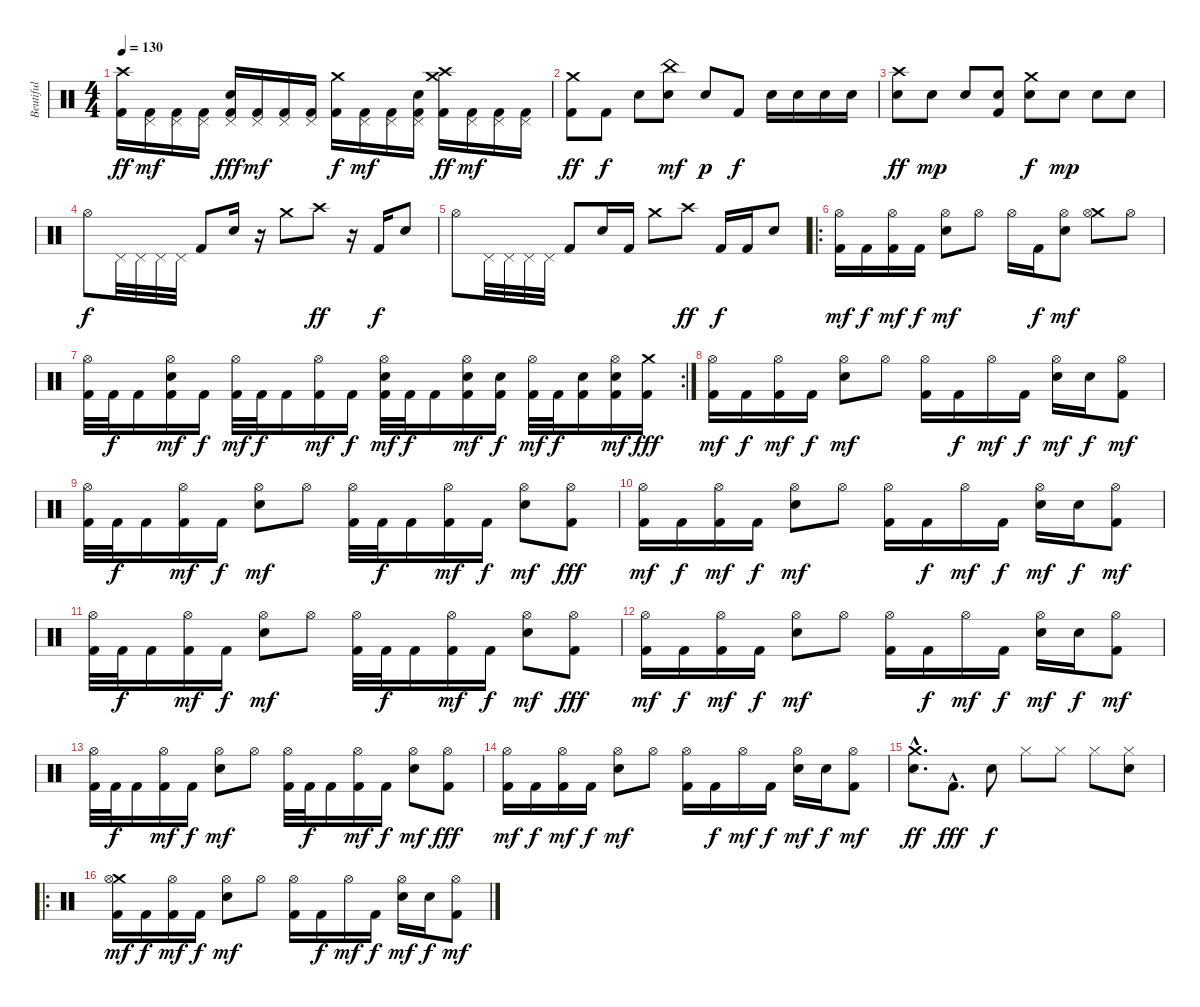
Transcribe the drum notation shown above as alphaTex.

\track ("Beutiful" "Beutiful") {instrument percussion}
\staff {score}
\articulation defaults
\ts (4 4)
\tempo 130
\clef neutral
\ks c
("Crash high (hit)" "Kick (hit) 2").16{dy ff} ("Pedal Hi-Hat (hit)" "Kick (hit) 2").16{dy mf} ("Pedal Hi-Hat (hit)" "Kick (hit) 2").16 ("Pedal Hi-Hat (hit)" "Kick (hit) 2").16 ("Pedal Hi-Hat (hit)" "Electric Snare (hit)" "Kick (hit) 2").16{dy fff} ("Pedal Hi-Hat (hit)" "Kick (hit) 2").16{dy mf} ("Pedal Hi-Hat (hit)" "Kick (hit) 2").16 ("Pedal Hi-Hat (hit)" "Kick (hit) 2").16 ("Crash medium (hit)" "Kick (hit) 2").16{dy f} ("Pedal Hi-Hat (hit)" "Kick (hit) 2").16{dy mf} ("Pedal Hi-Hat (hit)" "Kick (hit) 2").16 ("Pedal Hi-Hat (hit)" "Electric Snare (hit)" "Kick (hit) 2").16 ("Crash high (hit)" "Crash medium (hit)" "Kick (hit) 2").16{dy ff} ("Pedal Hi-Hat (hit)" "Kick (hit) 2").16{dy mf} ("Pedal Hi-Hat (hit)" "Kick (hit) 2").16 ("Pedal Hi-Hat (hit)" "Kick (hit) 2").16 |
("Crash medium (hit)" "Kick (hit) 2").8{dy ff} "Kick (hit) 2".8{dy f} "Electric Snare (hit)".8 ("China (hit)" "Electric Snare (hit)").8{dy mf} "Electric Snare (hit)".8{dy p} "Kick (hit) 2".8{dy f} "Electric Snare (hit)".16 "Electric Snare (hit)".16 "Electric Snare (hit)".16 "Electric Snare (hit)".16 |
("Crash high (hit)" "Electric Snare (hit)").8{dy ff} "Electric Snare (hit)".8{dy mp} "Electric Snare (hit)".8 ("Electric Snare (hit)" "Kick (hit) 2").8 ("Crash medium (hit)" "Electric Snare (hit)").8{dy f} "Electric Snare (hit)".8{dy mp} "Electric Snare (hit)".8 "Electric Snare (hit)".8 |
"Hi-Hat (open)".8{dy f} "Pedal Hi-Hat (hit)".32 "Pedal Hi-Hat (hit)".32 "Pedal Hi-Hat (hit)".32 "Pedal Hi-Hat (hit)".32 "Kick (hit) 2".8 "Electric Snare (hit)".16 r.16 "Crash medium (hit)".8 "Crash high (hit)".8{dy ff} r.16 "Kick (hit) 2".16{dy f} "Electric Snare (hit)".8 |
"Hi-Hat (open)".8 "Pedal Hi-Hat (hit)".32 "Pedal Hi-Hat (hit)".32 "Pedal Hi-Hat (hit)".32 "Pedal Hi-Hat (hit)".32 "Kick (hit) 2".8 "Electric Snare (hit)".16 "Kick (hit) 2".16 "Crash medium (hit)".8 "Crash high (hit)".8{dy ff} "Kick (hit) 2".16{dy f} "Kick (hit) 2".16 "Electric Snare (hit)".8 |
\ro
("Hi-Hat (open)" "Kick (hit) 2").16{dy mf} "Kick (hit) 2".16{dy f} ("Hi-Hat (open)" "Kick (hit) 2").16{dy mf} "Kick (hit) 2".16{dy f} ("Hi-Hat (open)" "Electric Snare (hit)").8{dy mf} "Hi-Hat (open)".8 "Hi-Hat (open)".16 "Kick (hit) 2".16{dy f} ("Hi-Hat (open)" "Electric Snare (hit)").8{dy mf} ("Crash medium (hit)" "Hi-Hat (open)").8 "Hi-Hat (open)".8 |
\rc 2
("Hi-Hat (open)" "Kick (hit) 2").32 "Kick (hit) 2".32{dy f} "Kick (hit) 2".16 ("Hi-Hat (open)" "Electric Snare (hit)" "Kick (hit) 2").16{dy mf} "Kick (hit) 2".16{dy f} ("Hi-Hat (open)" "Kick (hit) 2").32{dy mf} "Kick (hit) 2".32{dy f} "Kick (hit) 2".16 ("Hi-Hat (open)" "Kick (hit) 2").16{dy mf} "Kick (hit) 2".16{dy f} ("Hi-Hat (open)" "Electric Snare (hit)" "Kick (hit) 2").32{dy mf} "Kick (hit) 2".32{dy f} "Kick (hit) 2".16 ("Hi-Hat (open)" "Electric Snare (hit)" "Kick (hit) 2").16{dy mf} ("Electric Snare (hit)" "Kick (hit) 2").16{dy f} ("Hi-Hat (open)" "Kick (hit) 2").32{dy mf} "Kick (hit) 2".32{dy f} ("Electric Snare (hit)" "Kick (hit) 2").16 ("Hi-Hat (open)" "Electric Snare (hit)" "Kick (hit) 2").16{dy mf} ("Crash medium (hit)" "Kick (hit) 2").16{dy fff} |
("Hi-Hat (open)" "Kick (hit) 2").16{dy mf} "Kick (hit) 2".16{dy f} ("Hi-Hat (open)" "Kick (hit) 2").16{dy mf} "Kick (hit) 2".16{dy f} ("Hi-Hat (open)" "Electric Snare (hit)").8{dy mf} "Hi-Hat (open)".8 ("Hi-Hat (open)" "Kick (hit) 2").16 "Kick (hit) 2".16{dy f} "Hi-Hat (open)".16{dy mf} "Kick (hit) 2".16{dy f} ("Hi-Hat (open)" "Electric Snare (hit)").16{dy mf} "Electric Snare (hit)".16{dy f} ("Hi-Hat (open)" "Kick (hit) 2").8{dy mf} |
("Hi-Hat (open)" "Kick (hit) 2").32 "Kick (hit) 2".32{dy f} "Kick (hit) 2".16 ("Hi-Hat (open)" "Kick (hit) 2").16{dy mf} "Kick (hit) 2".16{dy f} ("Hi-Hat (open)" "Electric Snare (hit)").8{dy mf} "Hi-Hat (open)".8 ("Hi-Hat (open)" "Kick (hit) 2").32 "Kick (hit) 2".32{dy f} "Kick (hit) 2".16 ("Hi-Hat (open)" "Kick (hit) 2").16{dy mf} "Kick (hit) 2".16{dy f} ("Hi-Hat (open)" "Electric Snare (hit)").8{dy mf} ("Hi-Hat (open)" "Kick (hit) 2").8{dy fff} |
("Hi-Hat (open)" "Kick (hit) 2").16{dy mf} "Kick (hit) 2".16{dy f} ("Hi-Hat (open)" "Kick (hit) 2").16{dy mf} "Kick (hit) 2".16{dy f} ("Hi-Hat (open)" "Electric Snare (hit)").8{dy mf} "Hi-Hat (open)".8 ("Hi-Hat (open)" "Kick (hit) 2").16 "Kick (hit) 2".16{dy f} "Hi-Hat (open)".16{dy mf} "Kick (hit) 2".16{dy f} ("Hi-Hat (open)" "Electric Snare (hit)").16{dy mf} "Electric Snare (hit)".16{dy f} ("Hi-Hat (open)" "Kick (hit) 2").8{dy mf} |
("Hi-Hat (open)" "Kick (hit) 2").32 "Kick (hit) 2".32{dy f} "Kick (hit) 2".16 ("Hi-Hat (open)" "Kick (hit) 2").16{dy mf} "Kick (hit) 2".16{dy f} ("Hi-Hat (open)" "Electric Snare (hit)").8{dy mf} "Hi-Hat (open)".8 ("Hi-Hat (open)" "Kick (hit) 2").32 "Kick (hit) 2".32{dy f} "Kick (hit) 2".16 ("Hi-Hat (open)" "Kick (hit) 2").16{dy mf} "Kick (hit) 2".16{dy f} ("Hi-Hat (open)" "Electric Snare (hit)").8{dy mf} ("Hi-Hat (open)" "Kick (hit) 2").8{dy fff} |
("Hi-Hat (open)" "Kick (hit) 2").16{dy mf} "Kick (hit) 2".16{dy f} ("Hi-Hat (open)" "Kick (hit) 2").16{dy mf} "Kick (hit) 2".16{dy f} ("Hi-Hat (open)" "Electric Snare (hit)").8{dy mf} "Hi-Hat (open)".8 ("Hi-Hat (open)" "Kick (hit) 2").16 "Kick (hit) 2".16{dy f} "Hi-Hat (open)".16{dy mf} "Kick (hit) 2".16{dy f} ("Hi-Hat (open)" "Electric Snare (hit)").16{dy mf} "Electric Snare (hit)".16{dy f} ("Hi-Hat (open)" "Kick (hit) 2").8{dy mf} |
("Hi-Hat (open)" "Kick (hit) 2").32 "Kick (hit) 2".32{dy f} "Kick (hit) 2".16 ("Hi-Hat (open)" "Kick (hit) 2").16{dy mf} "Kick (hit) 2".16{dy f} ("Hi-Hat (open)" "Electric Snare (hit)").8{dy mf} "Hi-Hat (open)".8 ("Hi-Hat (open)" "Kick (hit) 2").32 "Kick (hit) 2".32{dy f} "Kick (hit) 2".16 ("Hi-Hat (open)" "Kick (hit) 2").16{dy mf} "Kick (hit) 2".16{dy f} ("Hi-Hat (open)" "Electric Snare (hit)").8{dy mf} ("Hi-Hat (open)" "Kick (hit) 2").8{dy fff} |
("Hi-Hat (open)" "Kick (hit) 2").16{dy mf} "Kick (hit) 2".16{dy f} ("Hi-Hat (open)" "Kick (hit) 2").16{dy mf} "Kick (hit) 2".16{dy f} ("Hi-Hat (open)" "Electric Snare (hit)").8{dy mf} "Hi-Hat (open)".8 ("Hi-Hat (open)" "Kick (hit) 2").16 "Kick (hit) 2".16{dy f} "Hi-Hat (open)".16{dy mf} "Kick (hit) 2".16{dy f} ("Hi-Hat (open)" "Electric Snare (hit)").16{dy mf} "Electric Snare (hit)".16{dy f} ("Hi-Hat (open)" "Kick (hit) 2").8{dy mf} |
("Crash medium (hit)"{hac} "Electric Snare (hit)"{hac}).8{d dy ff} "Kick (hit) 2"{hac}.8{d dy fff} "Electric Snare (hit)".8{dy f} "Hi-Hat (closed)".8 "Hi-Hat (closed)".8 "Hi-Hat (closed)".8 ("Hi-Hat (closed)" "Electric Snare (hit)").8 |
\ro
("Crash medium (hit)" "Hi-Hat (open)" "Kick (hit) 2").16{dy mf} "Kick (hit) 2".16{dy f} ("Hi-Hat (open)" "Kick (hit) 2").16{dy mf} "Kick (hit) 2".16{dy f} ("Hi-Hat (open)" "Electric Snare (hit)").8{dy mf} "Hi-Hat (open)".8 ("Hi-Hat (open)" "Kick (hit) 2").16 "Kick (hit) 2".16{dy f} "Hi-Hat (open)".16{dy mf} "Kick (hit) 2".16{dy f} ("Hi-Hat (open)" "Electric Snare (hit)").16{dy mf} "Electric Snare (hit)".16{dy f} ("Hi-Hat (open)" "Kick (hit) 2").8{dy mf}
